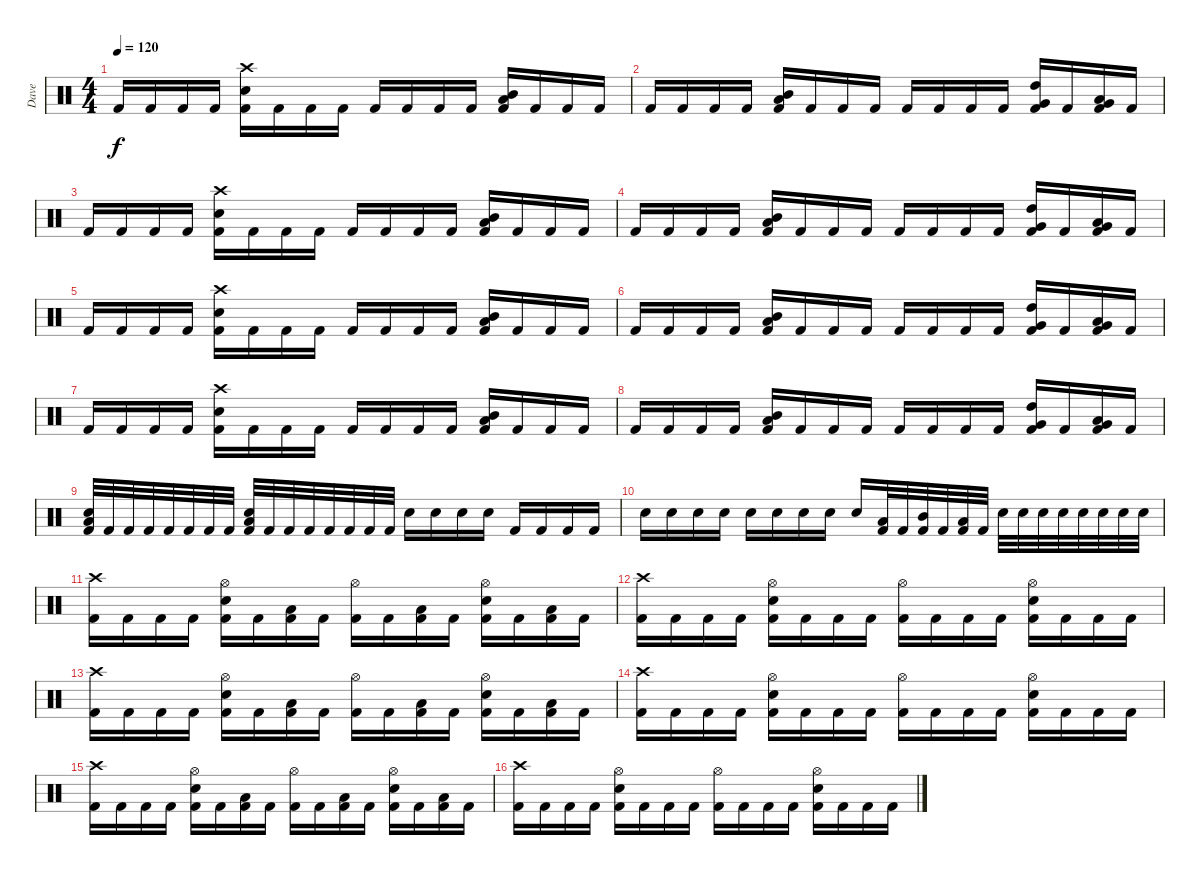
\track ("Dave" "Dave") {instrument percussion}
\staff {score}
\articulation defaults
\ts (4 4)
\tempo 120
\clef neutral
\ks c "Kick (hit) 2".16{dy f} "Kick (hit) 2".16 "Kick (hit) 2".16 "Kick (hit) 2".16
("Kick (hit) 2" "Snare (hit) 2" "Crash high (hit)").16 "Kick (hit) 2".16 "Kick (hit) 2".16 "Kick (hit) 2".16 "Kick (hit) 2".16 "Kick (hit) 2".16 "Kick (hit) 2".16 "Kick (hit) 2".16 ("Kick (hit) 2" "Low Tom (hit)" "Mid Tom (hit)").16 "Kick (hit) 2".16 "Kick (hit) 2".16 "Kick (hit) 2".16 |
"Kick (hit) 2".16 "Kick (hit) 2".16 "Kick (hit) 2".16 "Kick (hit) 2".16 ("Kick (hit) 2" "Mid Tom (hit)" "Low Tom (hit)").16 "Kick (hit) 2".16 "Kick (hit) 2".16 "Kick (hit) 2".16 "Kick (hit) 2".16 "Kick (hit) 2".16 "Kick (hit) 2".16 "Kick (hit) 2".16 ("Kick (hit) 2" "Very Low Tom (hit)" "High Tom (hit)").16 "Kick (hit) 2".16 ("Kick (hit) 2" "Low Floor Tom (hit)" "Very Low Tom (hit)").16 "Kick (hit) 2".16 |
"Kick (hit) 2".16 "Kick (hit) 2".16 "Kick (hit) 2".16 "Kick (hit) 2".16 ("Kick (hit) 2" "Snare (hit) 2" "Crash high (hit)").16 "Kick (hit) 2".16 "Kick (hit) 2".16 "Kick (hit) 2".16 "Kick (hit) 2".16 "Kick (hit) 2".16 "Kick (hit) 2".16 "Kick (hit) 2".16 ("Kick (hit) 2" "Low Tom (hit)" "Mid Tom (hit)").16 "Kick (hit) 2".16 "Kick (hit) 2".16 "Kick (hit) 2".16 |
"Kick (hit) 2".16 "Kick (hit) 2".16 "Kick (hit) 2".16 "Kick (hit) 2".16 ("Kick (hit) 2" "Mid Tom (hit)" "Low Tom (hit)").16 "Kick (hit) 2".16 "Kick (hit) 2".16 "Kick (hit) 2".16 "Kick (hit) 2".16 "Kick (hit) 2".16 "Kick (hit) 2".16 "Kick (hit) 2".16 ("Kick (hit) 2" "Very Low Tom (hit)" "High Tom (hit)").16 "Kick (hit) 2".16 ("Kick (hit) 2" "Low Floor Tom (hit)" "Very Low Tom (hit)").16 "Kick (hit) 2".16 |
"Kick (hit) 2".16 "Kick (hit) 2".16 "Kick (hit) 2".16 "Kick (hit) 2".16 ("Kick (hit) 2" "Snare (hit) 2" "Crash high (hit)").16 "Kick (hit) 2".16 "Kick (hit) 2".16 "Kick (hit) 2".16 "Kick (hit) 2".16 "Kick (hit) 2".16 "Kick (hit) 2".16 "Kick (hit) 2".16 ("Kick (hit) 2" "Low Tom (hit)" "Mid Tom (hit)").16 "Kick (hit) 2".16 "Kick (hit) 2".16 "Kick (hit) 2".16 |
"Kick (hit) 2".16 "Kick (hit) 2".16 "Kick (hit) 2".16 "Kick (hit) 2".16 ("Kick (hit) 2" "Mid Tom (hit)" "Low Tom (hit)").16 "Kick (hit) 2".16 "Kick (hit) 2".16 "Kick (hit) 2".16 "Kick (hit) 2".16 "Kick (hit) 2".16 "Kick (hit) 2".16 "Kick (hit) 2".16 ("Kick (hit) 2" "Very Low Tom (hit)" "High Tom (hit)").16 "Kick (hit) 2".16 ("Kick (hit) 2" "Low Floor Tom (hit)" "Very Low Tom (hit)").16 "Kick (hit) 2".16 |
"Kick (hit) 2".16 "Kick (hit) 2".16 "Kick (hit) 2".16 "Kick (hit) 2".16 ("Kick (hit) 2" "Snare (hit) 2" "Crash high (hit)").16 "Kick (hit) 2".16 "Kick (hit) 2".16 "Kick (hit) 2".16 "Kick (hit) 2".16 "Kick (hit) 2".16 "Kick (hit) 2".16 "Kick (hit) 2".16 ("Kick (hit) 2" "Low Tom (hit)" "Mid Tom (hit)").16 "Kick (hit) 2".16 "Kick (hit) 2".16 "Kick (hit) 2".16 |
"Kick (hit) 2".16 "Kick (hit) 2".16 "Kick (hit) 2".16 "Kick (hit) 2".16 ("Kick (hit) 2" "Mid Tom (hit)" "Low Tom (hit)").16 "Kick (hit) 2".16 "Kick (hit) 2".16 "Kick (hit) 2".16 "Kick (hit) 2".16 "Kick (hit) 2".16 "Kick (hit) 2".16 "Kick (hit) 2".16 ("Kick (hit) 2" "Very Low Tom (hit)" "High Tom (hit)").16 "Kick (hit) 2".16 ("Kick (hit) 2" "Low Floor Tom (hit)" "Very Low Tom (hit)").16 "Kick (hit) 2".16 |
("Kick (hit) 2" "Snare (hit) 2" "Low Floor Tom (hit)").32 "Kick (hit) 2".32 "Kick (hit) 2".32 "Kick (hit) 2".32 "Kick (hit) 2".32 "Kick (hit) 2".32 "Kick (hit) 2".32 "Kick (hit) 2".32 ("Kick (hit) 2" "Snare (hit) 2" "Low Floor Tom (hit)").32 "Kick (hit) 2".32 "Kick (hit) 2".32 "Kick (hit) 2".32 "Kick (hit) 2".32 "Kick (hit) 2".32 "Kick (hit) 2".32 "Kick (hit) 2".32 "Snare (hit) 2".16 "Snare (hit) 2".16 "Snare (hit) 2".16 "Snare (hit) 2".16 "Kick (hit) 2".16 "Kick (hit) 2".16 "Kick (hit) 2".16 "Kick (hit) 2".16 |
"Snare (hit) 2".16 "Snare (hit) 2".16 "Snare (hit) 2".16 "Snare (hit) 2".16 "Snare (hit) 2".16 "Snare (hit) 2".16 "Snare (hit) 2".16 "Snare (hit) 2".16 "Snare (hit) 2".16 ("Kick (hit) 2" "Low Tom (hit)").32 "Kick (hit) 2".32 ("Kick (hit) 2" "Mid Tom (hit)").32 "Kick (hit) 2".32 ("Kick (hit) 2" "Low Floor Tom (hit)").32 "Kick (hit) 2".32 "Snare (hit) 2".32 "Snare (hit) 2".32 "Snare (hit) 2".32 "Snare (hit) 2".32 "Snare (hit) 2".32 "Snare (hit) 2".32 "Snare (hit) 2".32 "Snare (hit) 2".32 |
("Kick (hit) 2" "Crash high (hit)").16 "Kick (hit) 2".16 "Kick (hit) 2".16 "Kick (hit) 2".16 ("Kick (hit) 2" "Snare (hit) 2" "Hi-Hat (open)").16 "Kick (hit) 2".16 ("Kick (hit) 2" "Low Tom (hit)").16 "Kick (hit) 2".16 ("Kick (hit) 2" "Hi-Hat (open)").16 "Kick (hit) 2".16 ("Kick (hit) 2" "Low Tom (hit)").16 "Kick (hit) 2".16 ("Kick (hit) 2" "Snare (hit) 2" "Hi-Hat (open)").16 "Kick (hit) 2".16 ("Kick (hit) 2" "Low Floor Tom (hit)").16 "Kick (hit) 2".16 |
("Kick (hit) 2" "Crash high (hit)").16 "Kick (hit) 2".16 "Kick (hit) 2".16 "Kick (hit) 2".16 ("Kick (hit) 2" "Snare (hit) 2" "Hi-Hat (open)").16 "Kick (hit) 2".16 "Kick (hit) 2".16 "Kick (hit) 2".16 ("Kick (hit) 2" "Hi-Hat (open)").16 "Kick (hit) 2".16 "Kick (hit) 2".16 "Kick (hit) 2".16 ("Kick (hit) 2" "Snare (hit) 2" "Hi-Hat (open)").16 "Kick (hit) 2".16 "Kick (hit) 2".16 "Kick (hit) 2".16 |
("Kick (hit) 2" "Crash high (hit)").16 "Kick (hit) 2".16 "Kick (hit) 2".16 "Kick (hit) 2".16 ("Kick (hit) 2" "Snare (hit) 2" "Hi-Hat (open)").16 "Kick (hit) 2".16 ("Kick (hit) 2" "Low Tom (hit)").16 "Kick (hit) 2".16 ("Kick (hit) 2" "Hi-Hat (open)").16 "Kick (hit) 2".16 ("Kick (hit) 2" "Low Tom (hit)").16 "Kick (hit) 2".16 ("Kick (hit) 2" "Snare (hit) 2" "Hi-Hat (open)").16 "Kick (hit) 2".16 ("Kick (hit) 2" "Low Floor Tom (hit)").16 "Kick (hit) 2".16 |
("Kick (hit) 2" "Crash high (hit)").16 "Kick (hit) 2".16 "Kick (hit) 2".16 "Kick (hit) 2".16 ("Kick (hit) 2" "Snare (hit) 2" "Hi-Hat (open)").16 "Kick (hit) 2".16 "Kick (hit) 2".16 "Kick (hit) 2".16 ("Kick (hit) 2" "Hi-Hat (open)").16 "Kick (hit) 2".16 "Kick (hit) 2".16 "Kick (hit) 2".16 ("Kick (hit) 2" "Snare (hit) 2" "Hi-Hat (open)").16 "Kick (hit) 2".16 "Kick (hit) 2".16 "Kick (hit) 2".16 |
("Kick (hit) 2" "Crash high (hit)").16 "Kick (hit) 2".16 "Kick (hit) 2".16 "Kick (hit) 2".16 ("Kick (hit) 2" "Snare (hit) 2" "Hi-Hat (open)").16 "Kick (hit) 2".16 ("Kick (hit) 2" "Low Tom (hit)").16 "Kick (hit) 2".16 ("Kick (hit) 2" "Hi-Hat (open)").16 "Kick (hit) 2".16 ("Kick (hit) 2" "Low Tom (hit)").16 "Kick (hit) 2".16 ("Kick (hit) 2" "Snare (hit) 2" "Hi-Hat (open)").16 "Kick (hit) 2".16 ("Kick (hit) 2" "Low Floor Tom (hit)").16 "Kick (hit) 2".16 |
("Kick (hit) 2" "Crash high (hit)").16 "Kick (hit) 2".16 "Kick (hit) 2".16 "Kick (hit) 2".16 ("Kick (hit) 2" "Snare (hit) 2" "Hi-Hat (open)").16 "Kick (hit) 2".16 "Kick (hit) 2".16 "Kick (hit) 2".16 ("Kick (hit) 2" "Hi-Hat (open)").16 "Kick (hit) 2".16 "Kick (hit) 2".16 "Kick (hit) 2".16 ("Kick (hit) 2" "Snare (hit) 2" "Hi-Hat (open)").16 "Kick (hit) 2".16 "Kick (hit) 2".16 "Kick (hit) 2".16
